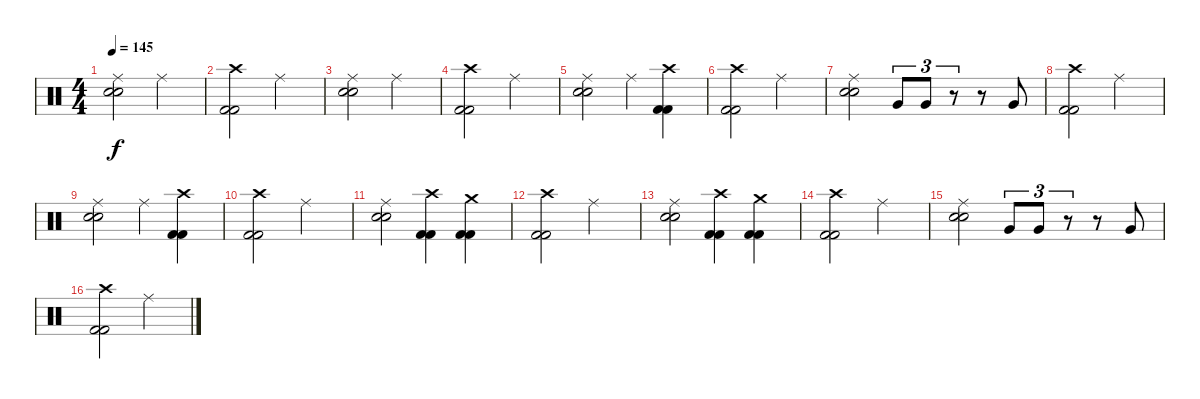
\track "" {instrument percussion}
\staff {score}
\articulation defaults
\ts (4 4)
\tempo 145
\clef neutral
\ks c
("Ride (middle)" "Snare (hit) 2" "Snare (hit) 2").2{dy f} "Ride (middle)".2 |
("Crash high (hit)" "Kick (hit) 2" "Kick (hit) 2").2 "Ride (middle)".2 |
("Ride (middle)" "Snare (hit) 2" "Snare (hit) 2").2 "Ride (middle)".2 |
("Crash high (hit)" "Kick (hit) 2" "Kick (hit) 2").2 "Ride (middle)".2 |
("Ride (middle)" "Snare (hit) 2" "Snare (hit) 2").2 "Ride (middle)".4 ("Crash high (hit)" "Kick (hit) 2" "Kick (hit) 2").4 |
("Crash high (hit)" "Kick (hit) 2" "Kick (hit) 2").2 "Ride (middle)".2 |
("Ride (middle)" "Snare (hit) 2" "Snare (hit) 2").2 "Very Low Tom (hit)".8{tu (3 2)} "Very Low Tom (hit)".8{tu (3 2)} r.8{tu (3 2)} r.8 "Very Low Tom (hit)".8 |
("Crash high (hit)" "Kick (hit) 2" "Kick (hit) 2").2 "Ride (middle)".2 |
("Ride (middle)" "Snare (hit) 2" "Snare (hit) 2").2 "Ride (middle)".4 ("Crash high (hit)" "Kick (hit) 2" "Kick (hit) 2").4 |
("Crash high (hit)" "Kick (hit) 2" "Kick (hit) 2").2 "Ride (middle)".2 |
("Ride (middle)" "Snare (hit) 2" "Snare (hit) 2").2 ("Crash high (hit)" "Kick (hit) 2" "Kick (hit) 2").4 ("Crash medium (hit)" "Kick (hit) 2" "Kick (hit) 2").4 |
("Crash high (hit)" "Kick (hit) 2" "Kick (hit) 2").2 "Ride (middle)".2 |
("Ride (middle)" "Snare (hit) 2" "Snare (hit) 2").2 ("Crash high (hit)" "Kick (hit) 2" "Kick (hit) 2").4 ("Crash medium (hit)" "Kick (hit) 2" "Kick (hit) 2").4 |
("Crash high (hit)" "Kick (hit) 2" "Kick (hit) 2").2 "Ride (middle)".2 |
("Ride (middle)" "Snare (hit) 2" "Snare (hit) 2").2 "Very Low Tom (hit)".8{tu (3 2)} "Very Low Tom (hit)".8{tu (3 2)} r.8{tu (3 2)} r.8 "Very Low Tom (hit)".8 |
("Crash high (hit)" "Kick (hit) 2" "Kick (hit) 2").2 "Ride (middle)".2
